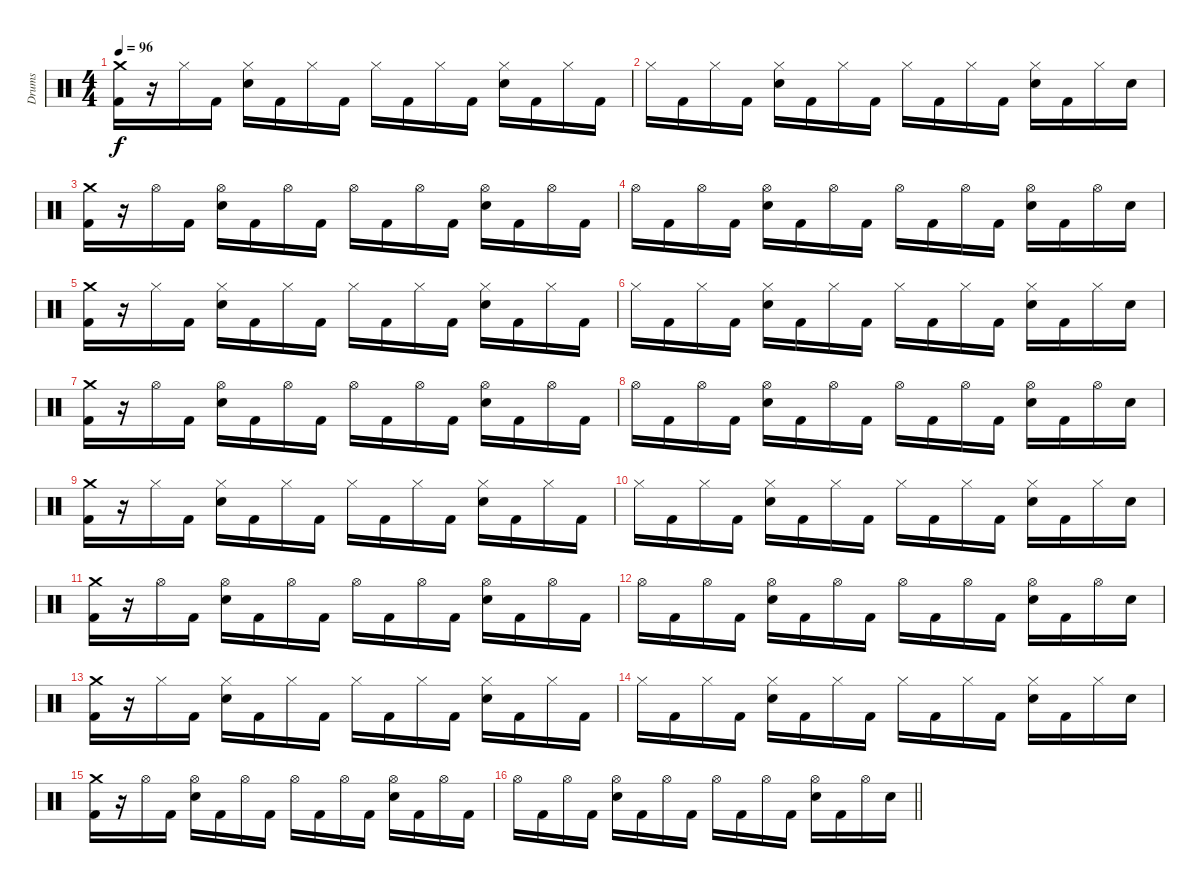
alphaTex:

\track ("Drums" "Drums") {instrument percussion}
\staff {score}
\articulation defaults
\ts (4 4)
\tempo 96
\clef neutral
\ks c
("Crash medium (hit)" "Kick (hit) 2").16{dy f} r.16 "Hi-Hat (closed)".16 "Kick (hit) 2".16 ("Hi-Hat (closed)" "Electric Snare (hit)").16 "Kick (hit) 2".16 "Hi-Hat (closed)".16 "Kick (hit) 2".16 "Hi-Hat (closed)".16 "Kick (hit) 2".16 "Hi-Hat (closed)".16 "Kick (hit) 2".16 ("Hi-Hat (closed)" "Electric Snare (hit)").16 "Kick (hit) 2".16 "Hi-Hat (closed)".16 "Kick (hit) 2".16 |
"Hi-Hat (closed)".16 "Kick (hit) 2".16 "Hi-Hat (closed)".16 "Kick (hit) 2".16 ("Hi-Hat (closed)" "Electric Snare (hit)").16 "Kick (hit) 2".16 "Hi-Hat (closed)".16 "Kick (hit) 2".16 "Hi-Hat (closed)".16 "Kick (hit) 2".16 "Hi-Hat (closed)".16 "Kick (hit) 2".16 ("Hi-Hat (closed)" "Electric Snare (hit)").16 "Kick (hit) 2".16 "Hi-Hat (closed)".16 "Electric Snare (hit)".16 |
("Crash medium (hit)" "Kick (hit) 2").16 r.16 "Hi-Hat (open)".16 "Kick (hit) 2".16 ("Hi-Hat (open)" "Electric Snare (hit)").16 "Kick (hit) 2".16 "Hi-Hat (open)".16 "Kick (hit) 2".16 "Hi-Hat (open)".16 "Kick (hit) 2".16 "Hi-Hat (open)".16 "Kick (hit) 2".16 ("Hi-Hat (open)" "Electric Snare (hit)").16 "Kick (hit) 2".16 "Hi-Hat (open)".16 "Kick (hit) 2".16 |
"Hi-Hat (open)".16 "Kick (hit) 2".16 "Hi-Hat (open)".16 "Kick (hit) 2".16 ("Hi-Hat (open)" "Electric Snare (hit)").16 "Kick (hit) 2".16 "Hi-Hat (open)".16 "Kick (hit) 2".16 "Hi-Hat (open)".16 "Kick (hit) 2".16 "Hi-Hat (open)".16 "Kick (hit) 2".16 ("Hi-Hat (open)" "Electric Snare (hit)").16 "Kick (hit) 2".16 "Hi-Hat (open)".16 "Electric Snare (hit)".16 |
("Crash medium (hit)" "Kick (hit) 2").16 r.16 "Hi-Hat (closed)".16 "Kick (hit) 2".16 ("Hi-Hat (closed)" "Electric Snare (hit)").16 "Kick (hit) 2".16 "Hi-Hat (closed)".16 "Kick (hit) 2".16 "Hi-Hat (closed)".16 "Kick (hit) 2".16 "Hi-Hat (closed)".16 "Kick (hit) 2".16 ("Hi-Hat (closed)" "Electric Snare (hit)").16 "Kick (hit) 2".16 "Hi-Hat (closed)".16 "Kick (hit) 2".16 |
"Hi-Hat (closed)".16 "Kick (hit) 2".16 "Hi-Hat (closed)".16 "Kick (hit) 2".16 ("Hi-Hat (closed)" "Electric Snare (hit)").16 "Kick (hit) 2".16 "Hi-Hat (closed)".16 "Kick (hit) 2".16 "Hi-Hat (closed)".16 "Kick (hit) 2".16 "Hi-Hat (closed)".16 "Kick (hit) 2".16 ("Hi-Hat (closed)" "Electric Snare (hit)").16 "Kick (hit) 2".16 "Hi-Hat (closed)".16 "Electric Snare (hit)".16 |
("Crash medium (hit)" "Kick (hit) 2").16 r.16 "Hi-Hat (open)".16 "Kick (hit) 2".16 ("Hi-Hat (open)" "Electric Snare (hit)").16 "Kick (hit) 2".16 "Hi-Hat (open)".16 "Kick (hit) 2".16 "Hi-Hat (open)".16 "Kick (hit) 2".16 "Hi-Hat (open)".16 "Kick (hit) 2".16 ("Hi-Hat (open)" "Electric Snare (hit)").16 "Kick (hit) 2".16 "Hi-Hat (open)".16 "Kick (hit) 2".16 |
"Hi-Hat (open)".16 "Kick (hit) 2".16 "Hi-Hat (open)".16 "Kick (hit) 2".16 ("Hi-Hat (open)" "Electric Snare (hit)").16 "Kick (hit) 2".16 "Hi-Hat (open)".16 "Kick (hit) 2".16 "Hi-Hat (open)".16 "Kick (hit) 2".16 "Hi-Hat (open)".16 "Kick (hit) 2".16 ("Hi-Hat (open)" "Electric Snare (hit)").16 "Kick (hit) 2".16 "Hi-Hat (open)".16 "Electric Snare (hit)".16 |
("Crash medium (hit)" "Kick (hit) 2").16 r.16 "Hi-Hat (closed)".16 "Kick (hit) 2".16 ("Hi-Hat (closed)" "Electric Snare (hit)").16 "Kick (hit) 2".16 "Hi-Hat (closed)".16 "Kick (hit) 2".16 "Hi-Hat (closed)".16 "Kick (hit) 2".16 "Hi-Hat (closed)".16 "Kick (hit) 2".16 ("Hi-Hat (closed)" "Electric Snare (hit)").16 "Kick (hit) 2".16 "Hi-Hat (closed)".16 "Kick (hit) 2".16 |
"Hi-Hat (closed)".16 "Kick (hit) 2".16 "Hi-Hat (closed)".16 "Kick (hit) 2".16 ("Hi-Hat (closed)" "Electric Snare (hit)").16 "Kick (hit) 2".16 "Hi-Hat (closed)".16 "Kick (hit) 2".16 "Hi-Hat (closed)".16 "Kick (hit) 2".16 "Hi-Hat (closed)".16 "Kick (hit) 2".16 ("Hi-Hat (closed)" "Electric Snare (hit)").16 "Kick (hit) 2".16 "Hi-Hat (closed)".16 "Electric Snare (hit)".16 |
("Crash medium (hit)" "Kick (hit) 2").16 r.16 "Hi-Hat (open)".16 "Kick (hit) 2".16 ("Hi-Hat (open)" "Electric Snare (hit)").16 "Kick (hit) 2".16 "Hi-Hat (open)".16 "Kick (hit) 2".16 "Hi-Hat (open)".16 "Kick (hit) 2".16 "Hi-Hat (open)".16 "Kick (hit) 2".16 ("Hi-Hat (open)" "Electric Snare (hit)").16 "Kick (hit) 2".16 "Hi-Hat (open)".16 "Kick (hit) 2".16 |
"Hi-Hat (open)".16 "Kick (hit) 2".16 "Hi-Hat (open)".16 "Kick (hit) 2".16 ("Hi-Hat (open)" "Electric Snare (hit)").16 "Kick (hit) 2".16 "Hi-Hat (open)".16 "Kick (hit) 2".16 "Hi-Hat (open)".16 "Kick (hit) 2".16 "Hi-Hat (open)".16 "Kick (hit) 2".16 ("Hi-Hat (open)" "Electric Snare (hit)").16 "Kick (hit) 2".16 "Hi-Hat (open)".16 "Electric Snare (hit)".16 |
("Crash medium (hit)" "Kick (hit) 2").16 r.16 "Hi-Hat (closed)".16 "Kick (hit) 2".16 ("Hi-Hat (closed)" "Electric Snare (hit)").16 "Kick (hit) 2".16 "Hi-Hat (closed)".16 "Kick (hit) 2".16 "Hi-Hat (closed)".16 "Kick (hit) 2".16 "Hi-Hat (closed)".16 "Kick (hit) 2".16 ("Hi-Hat (closed)" "Electric Snare (hit)").16 "Kick (hit) 2".16 "Hi-Hat (closed)".16 "Kick (hit) 2".16 |
"Hi-Hat (closed)".16 "Kick (hit) 2".16 "Hi-Hat (closed)".16 "Kick (hit) 2".16 ("Hi-Hat (closed)" "Electric Snare (hit)").16 "Kick (hit) 2".16 "Hi-Hat (closed)".16 "Kick (hit) 2".16 "Hi-Hat (closed)".16 "Kick (hit) 2".16 "Hi-Hat (closed)".16 "Kick (hit) 2".16 ("Hi-Hat (closed)" "Electric Snare (hit)").16 "Kick (hit) 2".16 "Hi-Hat (closed)".16 "Electric Snare (hit)".16 |
("Crash medium (hit)" "Kick (hit) 2").16 r.16 "Hi-Hat (open)".16 "Kick (hit) 2".16 ("Hi-Hat (open)" "Electric Snare (hit)").16 "Kick (hit) 2".16 "Hi-Hat (open)".16 "Kick (hit) 2".16 "Hi-Hat (open)".16 "Kick (hit) 2".16 "Hi-Hat (open)".16 "Kick (hit) 2".16 ("Hi-Hat (open)" "Electric Snare (hit)").16 "Kick (hit) 2".16 "Hi-Hat (open)".16 "Kick (hit) 2".16 |
\barLineRight lightlight "Hi-Hat (open)".16 "Kick (hit) 2".16 "Hi-Hat (open)".16 "Kick (hit) 2".16
("Hi-Hat (open)" "Electric Snare (hit)").16 "Kick (hit) 2".16 "Hi-Hat (open)".16 "Kick (hit) 2".16 "Hi-Hat (open)".16 "Kick (hit) 2".16 "Hi-Hat (open)".16 "Kick (hit) 2".16 ("Hi-Hat (open)" "Electric Snare (hit)").16 "Kick (hit) 2".16 "Hi-Hat (open)".16 "Electric Snare (hit)".16
